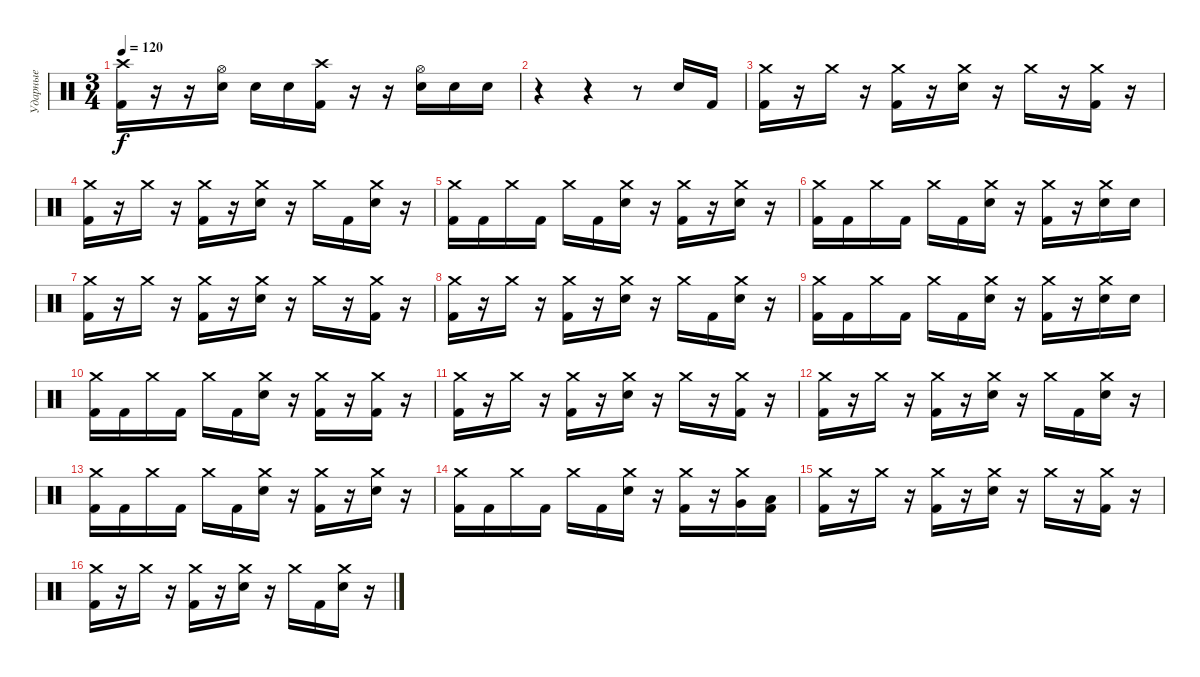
\track ("Ударные" "Ударные") {instrument percussion}
\staff {score}
\articulation defaults
\ts (3 4)
\tempo 120
\clef neutral
\ks c
("Crash high (hit)" "Kick (hit) 2").16{dy f} r.16 r.16 ("Hi-Hat (open)" "Electric Snare (hit)").16 "Electric Snare (hit)".16 "Electric Snare (hit)".16 ("Crash high (hit)" "Kick (hit) 2").16 r.16 r.16 ("Hi-Hat (open)" "Electric Snare (hit)").16 "Electric Snare (hit)".16 "Electric Snare (hit)".16 |
r.4 r.4 r.8 "Electric Snare (hit)".16 "Kick (hit) 2".16 |
("Crash medium (hit)" "Kick (hit) 2").16 r.16 "Crash medium (hit)".16 r.16 ("Crash medium (hit)" "Kick (hit) 2").16 r.16 ("Crash medium (hit)" "Electric Snare (hit)").16 r.16 "Crash medium (hit)".16 r.16 ("Crash medium (hit)" "Kick (hit) 2").16 r.16 |
("Crash medium (hit)" "Kick (hit) 2").16 r.16 "Crash medium (hit)".16 r.16 ("Crash medium (hit)" "Kick (hit) 2").16 r.16 ("Crash medium (hit)" "Electric Snare (hit)").16 r.16 "Crash medium (hit)".16 "Kick (hit) 2".16 ("Crash medium (hit)" "Electric Snare (hit)").16 r.16 |
("Crash medium (hit)" "Kick (hit) 2").16 "Kick (hit) 2".16 "Crash medium (hit)".16 "Kick (hit) 2".16 "Crash medium (hit)".16 "Kick (hit) 2".16 ("Crash medium (hit)" "Electric Snare (hit)").16 r.16 ("Crash medium (hit)" "Kick (hit) 2").16 r.16 ("Crash medium (hit)" "Electric Snare (hit)").16 r.16 |
("Crash medium (hit)" "Kick (hit) 2").16 "Kick (hit) 2".16 "Crash medium (hit)".16 "Kick (hit) 2".16 "Crash medium (hit)".16 "Kick (hit) 2".16 ("Crash medium (hit)" "Electric Snare (hit)").16 r.16 ("Crash medium (hit)" "Kick (hit) 2").16 r.16 ("Crash medium (hit)" "Electric Snare (hit)").16 "Electric Snare (hit)".16 |
("Crash medium (hit)" "Kick (hit) 2").16 r.16 "Crash medium (hit)".16 r.16 ("Crash medium (hit)" "Kick (hit) 2").16 r.16 ("Crash medium (hit)" "Electric Snare (hit)").16 r.16 "Crash medium (hit)".16 r.16 ("Crash medium (hit)" "Kick (hit) 2").16 r.16 |
("Crash medium (hit)" "Kick (hit) 2").16 r.16 "Crash medium (hit)".16 r.16 ("Crash medium (hit)" "Kick (hit) 2").16 r.16 ("Crash medium (hit)" "Electric Snare (hit)").16 r.16 "Crash medium (hit)".16 "Kick (hit) 2".16 ("Crash medium (hit)" "Electric Snare (hit)").16 r.16 |
("Crash medium (hit)" "Kick (hit) 2").16 "Kick (hit) 2".16 "Crash medium (hit)".16 "Kick (hit) 2".16 "Crash medium (hit)".16 "Kick (hit) 2".16 ("Crash medium (hit)" "Electric Snare (hit)").16 r.16 ("Crash medium (hit)" "Kick (hit) 2").16 r.16 ("Crash medium (hit)" "Electric Snare (hit)").16 "Electric Snare (hit)".16 |
("Crash medium (hit)" "Kick (hit) 2").16 "Kick (hit) 2".16 "Crash medium (hit)".16 "Kick (hit) 2".16 "Crash medium (hit)".16 "Kick (hit) 2".16 ("Crash medium (hit)" "Electric Snare (hit)").16 r.16 ("Crash medium (hit)" "Kick (hit) 2").16 r.16 ("Crash medium (hit)" "Kick (hit) 2").16 r.16 |
("Crash medium (hit)" "Kick (hit) 2").16 r.16 "Crash medium (hit)".16 r.16 ("Crash medium (hit)" "Kick (hit) 2").16 r.16 ("Crash medium (hit)" "Electric Snare (hit)").16 r.16 "Crash medium (hit)".16 r.16 ("Crash medium (hit)" "Kick (hit) 2").16 r.16 |
("Crash medium (hit)" "Kick (hit) 2").16 r.16 "Crash medium (hit)".16 r.16 ("Crash medium (hit)" "Kick (hit) 2").16 r.16 ("Crash medium (hit)" "Electric Snare (hit)").16 r.16 "Crash medium (hit)".16 "Kick (hit) 2".16 ("Crash medium (hit)" "Electric Snare (hit)").16 r.16 |
("Crash medium (hit)" "Kick (hit) 2").16 "Kick (hit) 2".16 "Crash medium (hit)".16 "Kick (hit) 2".16 "Crash medium (hit)".16 "Kick (hit) 2".16 ("Crash medium (hit)" "Electric Snare (hit)").16 r.16 ("Crash medium (hit)" "Kick (hit) 2").16 r.16 ("Crash medium (hit)" "Electric Snare (hit)").16 r.16 |
("Crash medium (hit)" "Kick (hit) 2").16 "Kick (hit) 2".16 "Crash medium (hit)".16 "Kick (hit) 2".16 "Crash medium (hit)".16 "Kick (hit) 2".16 ("Crash medium (hit)" "Electric Snare (hit)").16 r.16 ("Crash medium (hit)" "Kick (hit) 2").16 r.16 ("Crash medium (hit)" "Very Low Tom (hit)").16 ("Low Floor Tom (hit)" "Kick (hit) 2").16 |
("Crash medium (hit)" "Kick (hit) 2").16 r.16 "Crash medium (hit)".16 r.16 ("Crash medium (hit)" "Kick (hit) 2").16 r.16 ("Crash medium (hit)" "Electric Snare (hit)").16 r.16 "Crash medium (hit)".16 r.16 ("Crash medium (hit)" "Kick (hit) 2").16 r.16 |
("Crash medium (hit)" "Kick (hit) 2").16 r.16 "Crash medium (hit)".16 r.16 ("Crash medium (hit)" "Kick (hit) 2").16 r.16 ("Crash medium (hit)" "Electric Snare (hit)").16 r.16 "Crash medium (hit)".16 "Kick (hit) 2".16 ("Crash medium (hit)" "Electric Snare (hit)").16 r.16
